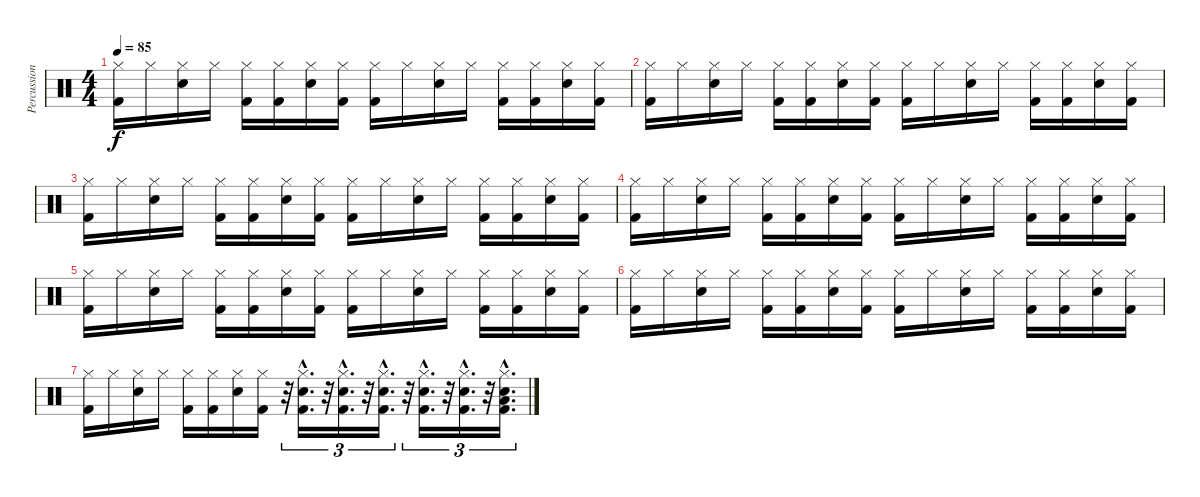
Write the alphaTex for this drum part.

\track ("Percussions" "Percussion") {instrument percussion}
\staff {score}
\articulation defaults
\ts (4 4)
\tempo 85
\clef neutral
\ks c
("Hi-Hat (closed)" "Kick (hit) 2").16{dy f} "Hi-Hat (closed)".16 ("Hi-Hat (closed)" "Snare (hit) 2").16 "Hi-Hat (closed)".16 ("Hi-Hat (closed)" "Kick (hit) 2").16 ("Hi-Hat (closed)" "Kick (hit) 2").16 ("Hi-Hat (closed)" "Snare (hit) 2").16 ("Hi-Hat (closed)" "Kick (hit) 2").16 ("Hi-Hat (closed)" "Kick (hit) 2").16 "Hi-Hat (closed)".16 ("Hi-Hat (closed)" "Snare (hit) 2").16 "Hi-Hat (closed)".16 ("Hi-Hat (closed)" "Kick (hit) 2").16 ("Hi-Hat (closed)" "Kick (hit) 2").16 ("Hi-Hat (closed)" "Snare (hit) 2").16 ("Hi-Hat (closed)" "Kick (hit) 2").16 |
("Hi-Hat (closed)" "Kick (hit) 2").16 "Hi-Hat (closed)".16 ("Hi-Hat (closed)" "Snare (hit) 2").16 "Hi-Hat (closed)".16 ("Hi-Hat (closed)" "Kick (hit) 2").16 ("Hi-Hat (closed)" "Kick (hit) 2").16 ("Hi-Hat (closed)" "Snare (hit) 2").16 ("Hi-Hat (closed)" "Kick (hit) 2").16 ("Hi-Hat (closed)" "Kick (hit) 2").16 "Hi-Hat (closed)".16 ("Hi-Hat (closed)" "Snare (hit) 2").16 "Hi-Hat (closed)".16 ("Hi-Hat (closed)" "Kick (hit) 2").16 ("Hi-Hat (closed)" "Kick (hit) 2").16 ("Hi-Hat (closed)" "Snare (hit) 2").16 ("Hi-Hat (closed)" "Kick (hit) 2").16 |
("Hi-Hat (closed)" "Kick (hit) 2").16 "Hi-Hat (closed)".16 ("Hi-Hat (closed)" "Snare (hit) 2").16 "Hi-Hat (closed)".16 ("Hi-Hat (closed)" "Kick (hit) 2").16 ("Hi-Hat (closed)" "Kick (hit) 2").16 ("Hi-Hat (closed)" "Snare (hit) 2").16 ("Hi-Hat (closed)" "Kick (hit) 2").16 ("Hi-Hat (closed)" "Kick (hit) 2").16 "Hi-Hat (closed)".16 ("Hi-Hat (closed)" "Snare (hit) 2").16 "Hi-Hat (closed)".16 ("Hi-Hat (closed)" "Kick (hit) 2").16 ("Hi-Hat (closed)" "Kick (hit) 2").16 ("Hi-Hat (closed)" "Snare (hit) 2").16 ("Hi-Hat (closed)" "Kick (hit) 2").16 |
("Hi-Hat (closed)" "Kick (hit) 2").16 "Hi-Hat (closed)".16 ("Hi-Hat (closed)" "Snare (hit) 2").16 "Hi-Hat (closed)".16 ("Hi-Hat (closed)" "Kick (hit) 2").16 ("Hi-Hat (closed)" "Kick (hit) 2").16 ("Hi-Hat (closed)" "Snare (hit) 2").16 ("Hi-Hat (closed)" "Kick (hit) 2").16 ("Hi-Hat (closed)" "Kick (hit) 2").16 "Hi-Hat (closed)".16 ("Hi-Hat (closed)" "Snare (hit) 2").16 "Hi-Hat (closed)".16 ("Hi-Hat (closed)" "Kick (hit) 2").16 ("Hi-Hat (closed)" "Kick (hit) 2").16 ("Hi-Hat (closed)" "Snare (hit) 2").16 ("Hi-Hat (closed)" "Kick (hit) 2").16 |
("Hi-Hat (closed)" "Kick (hit) 2").16 "Hi-Hat (closed)".16 ("Hi-Hat (closed)" "Snare (hit) 2").16 "Hi-Hat (closed)".16 ("Hi-Hat (closed)" "Kick (hit) 2").16 ("Hi-Hat (closed)" "Kick (hit) 2").16 ("Hi-Hat (closed)" "Snare (hit) 2").16 ("Hi-Hat (closed)" "Kick (hit) 2").16 ("Hi-Hat (closed)" "Kick (hit) 2").16 "Hi-Hat (closed)".16 ("Hi-Hat (closed)" "Snare (hit) 2").16 "Hi-Hat (closed)".16 ("Hi-Hat (closed)" "Kick (hit) 2").16 ("Hi-Hat (closed)" "Kick (hit) 2").16 ("Hi-Hat (closed)" "Snare (hit) 2").16 ("Hi-Hat (closed)" "Kick (hit) 2").16 |
("Hi-Hat (closed)" "Kick (hit) 2").16 "Hi-Hat (closed)".16 ("Hi-Hat (closed)" "Snare (hit) 2").16 "Hi-Hat (closed)".16 ("Hi-Hat (closed)" "Kick (hit) 2").16 ("Hi-Hat (closed)" "Kick (hit) 2").16 ("Hi-Hat (closed)" "Snare (hit) 2").16 ("Hi-Hat (closed)" "Kick (hit) 2").16 ("Hi-Hat (closed)" "Kick (hit) 2").16 "Hi-Hat (closed)".16 ("Hi-Hat (closed)" "Snare (hit) 2").16 "Hi-Hat (closed)".16 ("Hi-Hat (closed)" "Kick (hit) 2").16 ("Hi-Hat (closed)" "Kick (hit) 2").16 ("Hi-Hat (closed)" "Snare (hit) 2").16 ("Hi-Hat (closed)" "Kick (hit) 2").16 |
("Hi-Hat (closed)" "Kick (hit) 2").16 "Hi-Hat (closed)".16 ("Hi-Hat (closed)" "Snare (hit) 2").16 "Hi-Hat (closed)".16 ("Hi-Hat (closed)" "Kick (hit) 2").16 ("Hi-Hat (closed)" "Kick (hit) 2").16 ("Hi-Hat (closed)" "Snare (hit) 2").16 ("Hi-Hat (closed)" "Kick (hit) 2").16 r.32{tu (3 2)} ("Hi-Hat (closed)"{hac} "Snare (hit) 2"{hac} "Kick (hit) 2"{hac}).16{d tu (3 2)} r.32{tu (3 2)} ("Hi-Hat (closed)"{hac} "Snare (hit) 2"{hac} "Kick (hit) 2"{hac}).16{d tu (3 2)} r.32{tu (3 2)} ("Hi-Hat (closed)"{hac} "Snare (hit) 2"{hac} "Kick (hit) 2"{hac}).16{d tu (3 2)} r.32{tu (3 2)} ("Hi-Hat (closed)"{hac} "Snare (hit) 2"{hac} "Kick (hit) 2"{hac}).16{d tu (3 2)} r.32{tu (3 2)} ("Hi-Hat (closed)"{hac} "Snare (hit) 2"{hac} "Kick (hit) 2"{hac}).16{d tu (3 2)} r.32{tu (3 2)} ("Hi-Hat (closed)"{hac} "Snare (hit) 2"{hac} "Low Floor Tom (hit)"{hac} "Kick (hit) 2"{hac}).16{d tu (3 2)}
